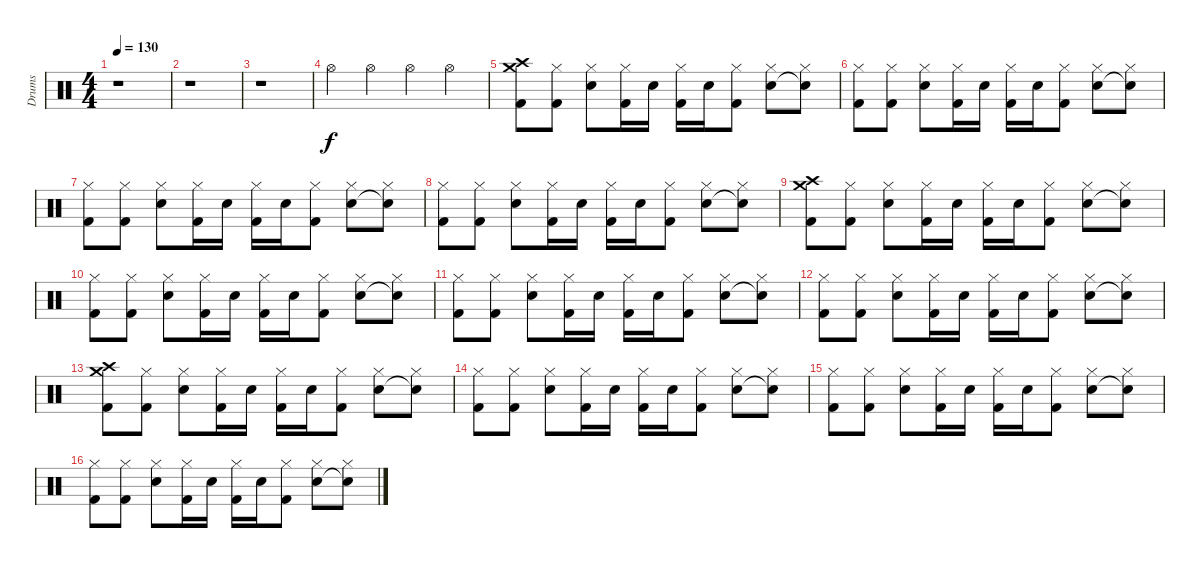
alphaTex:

\track ("Drums" "Drums") {instrument percussion}
\staff {score}
\articulation defaults
\ts (4 4)
\tempo 130
\clef neutral
\ks c
r.1{dy f} |
r.1 |
r.1 |
"Hi-Hat (open)".4 "Hi-Hat (open)".4 "Hi-Hat (open)".4 "Hi-Hat (open)".4 |
("Crash medium (hit)" "Crash high (hit)" "Kick (hit) 2").8 ("Hi-Hat (closed)" "Kick (hit) 2").8 ("Hi-Hat (closed)" "Snare (hit) 2").8 ("Hi-Hat (closed)" "Kick (hit) 2").16 "Snare (hit) 2".16 ("Hi-Hat (closed)" "Kick (hit) 2").16 "Snare (hit) 2".16 ("Hi-Hat (closed)" "Kick (hit) 2").8 ("Hi-Hat (closed)" "Snare (hit) 2").8 ("Hi-Hat (closed)" "Snare (hit)"{t}).8 |
("Hi-Hat (closed)" "Kick (hit) 2").8 ("Hi-Hat (closed)" "Kick (hit) 2").8 ("Hi-Hat (closed)" "Snare (hit) 2").8 ("Hi-Hat (closed)" "Kick (hit) 2").16 "Snare (hit) 2".16 ("Hi-Hat (closed)" "Kick (hit) 2").16 "Snare (hit) 2".16 ("Hi-Hat (closed)" "Kick (hit) 2").8 ("Hi-Hat (closed)" "Snare (hit) 2").8 ("Hi-Hat (closed)" "Snare (hit)"{t}).8 |
("Hi-Hat (closed)" "Kick (hit) 2").8 ("Hi-Hat (closed)" "Kick (hit) 2").8 ("Hi-Hat (closed)" "Snare (hit) 2").8 ("Hi-Hat (closed)" "Kick (hit) 2").16 "Snare (hit) 2".16 ("Hi-Hat (closed)" "Kick (hit) 2").16 "Snare (hit) 2".16 ("Hi-Hat (closed)" "Kick (hit) 2").8 ("Hi-Hat (closed)" "Snare (hit) 2").8 ("Hi-Hat (closed)" "Snare (hit)"{t}).8 |
("Hi-Hat (closed)" "Kick (hit) 2").8 ("Hi-Hat (closed)" "Kick (hit) 2").8 ("Hi-Hat (closed)" "Snare (hit) 2").8 ("Hi-Hat (closed)" "Kick (hit) 2").16 "Snare (hit) 2".16 ("Hi-Hat (closed)" "Kick (hit) 2").16 "Snare (hit) 2".16 ("Hi-Hat (closed)" "Kick (hit) 2").8 ("Hi-Hat (closed)" "Snare (hit) 2").8 ("Hi-Hat (closed)" "Snare (hit)"{t}).8 |
("Crash medium (hit)" "Crash high (hit)" "Kick (hit) 2").8 ("Hi-Hat (closed)" "Kick (hit) 2").8 ("Hi-Hat (closed)" "Snare (hit) 2").8 ("Hi-Hat (closed)" "Kick (hit) 2").16 "Snare (hit) 2".16 ("Hi-Hat (closed)" "Kick (hit) 2").16 "Snare (hit) 2".16 ("Hi-Hat (closed)" "Kick (hit) 2").8 ("Hi-Hat (closed)" "Snare (hit) 2").8 ("Hi-Hat (closed)" "Snare (hit)"{t}).8 |
("Hi-Hat (closed)" "Kick (hit) 2").8 ("Hi-Hat (closed)" "Kick (hit) 2").8 ("Hi-Hat (closed)" "Snare (hit) 2").8 ("Hi-Hat (closed)" "Kick (hit) 2").16 "Snare (hit) 2".16 ("Hi-Hat (closed)" "Kick (hit) 2").16 "Snare (hit) 2".16 ("Hi-Hat (closed)" "Kick (hit) 2").8 ("Hi-Hat (closed)" "Snare (hit) 2").8 ("Hi-Hat (closed)" "Snare (hit)"{t}).8 |
("Hi-Hat (closed)" "Kick (hit) 2").8 ("Hi-Hat (closed)" "Kick (hit) 2").8 ("Hi-Hat (closed)" "Snare (hit) 2").8 ("Hi-Hat (closed)" "Kick (hit) 2").16 "Snare (hit) 2".16 ("Hi-Hat (closed)" "Kick (hit) 2").16 "Snare (hit) 2".16 ("Hi-Hat (closed)" "Kick (hit) 2").8 ("Hi-Hat (closed)" "Snare (hit) 2").8 ("Hi-Hat (closed)" "Snare (hit)"{t}).8 |
("Hi-Hat (closed)" "Kick (hit) 2").8 ("Hi-Hat (closed)" "Kick (hit) 2").8 ("Hi-Hat (closed)" "Snare (hit) 2").8 ("Hi-Hat (closed)" "Kick (hit) 2").16 "Snare (hit) 2".16 ("Hi-Hat (closed)" "Kick (hit) 2").16 "Snare (hit) 2".16 ("Hi-Hat (closed)" "Kick (hit) 2").8 ("Hi-Hat (closed)" "Snare (hit) 2").8 ("Hi-Hat (closed)" "Snare (hit)"{t}).8 |
("Crash medium (hit)" "Crash high (hit)" "Kick (hit) 2").8 ("Hi-Hat (closed)" "Kick (hit) 2").8 ("Hi-Hat (closed)" "Snare (hit) 2").8 ("Hi-Hat (closed)" "Kick (hit) 2").16 "Snare (hit) 2".16 ("Hi-Hat (closed)" "Kick (hit) 2").16 "Snare (hit) 2".16 ("Hi-Hat (closed)" "Kick (hit) 2").8 ("Hi-Hat (closed)" "Snare (hit) 2").8 ("Hi-Hat (closed)" "Snare (hit)"{t}).8 |
("Hi-Hat (closed)" "Kick (hit) 2").8 ("Hi-Hat (closed)" "Kick (hit) 2").8 ("Hi-Hat (closed)" "Snare (hit) 2").8 ("Hi-Hat (closed)" "Kick (hit) 2").16 "Snare (hit) 2".16 ("Hi-Hat (closed)" "Kick (hit) 2").16 "Snare (hit) 2".16 ("Hi-Hat (closed)" "Kick (hit) 2").8 ("Hi-Hat (closed)" "Snare (hit) 2").8 ("Hi-Hat (closed)" "Snare (hit)"{t}).8 |
("Hi-Hat (closed)" "Kick (hit) 2").8 ("Hi-Hat (closed)" "Kick (hit) 2").8 ("Hi-Hat (closed)" "Snare (hit) 2").8 ("Hi-Hat (closed)" "Kick (hit) 2").16 "Snare (hit) 2".16 ("Hi-Hat (closed)" "Kick (hit) 2").16 "Snare (hit) 2".16 ("Hi-Hat (closed)" "Kick (hit) 2").8 ("Hi-Hat (closed)" "Snare (hit) 2").8 ("Hi-Hat (closed)" "Snare (hit)"{t}).8 |
("Hi-Hat (closed)" "Kick (hit) 2").8 ("Hi-Hat (closed)" "Kick (hit) 2").8 ("Hi-Hat (closed)" "Snare (hit) 2").8 ("Hi-Hat (closed)" "Kick (hit) 2").16 "Snare (hit) 2".16 ("Hi-Hat (closed)" "Kick (hit) 2").16 "Snare (hit) 2".16 ("Hi-Hat (closed)" "Kick (hit) 2").8 ("Hi-Hat (closed)" "Snare (hit) 2").8 ("Hi-Hat (closed)" "Snare (hit)"{t}).8
